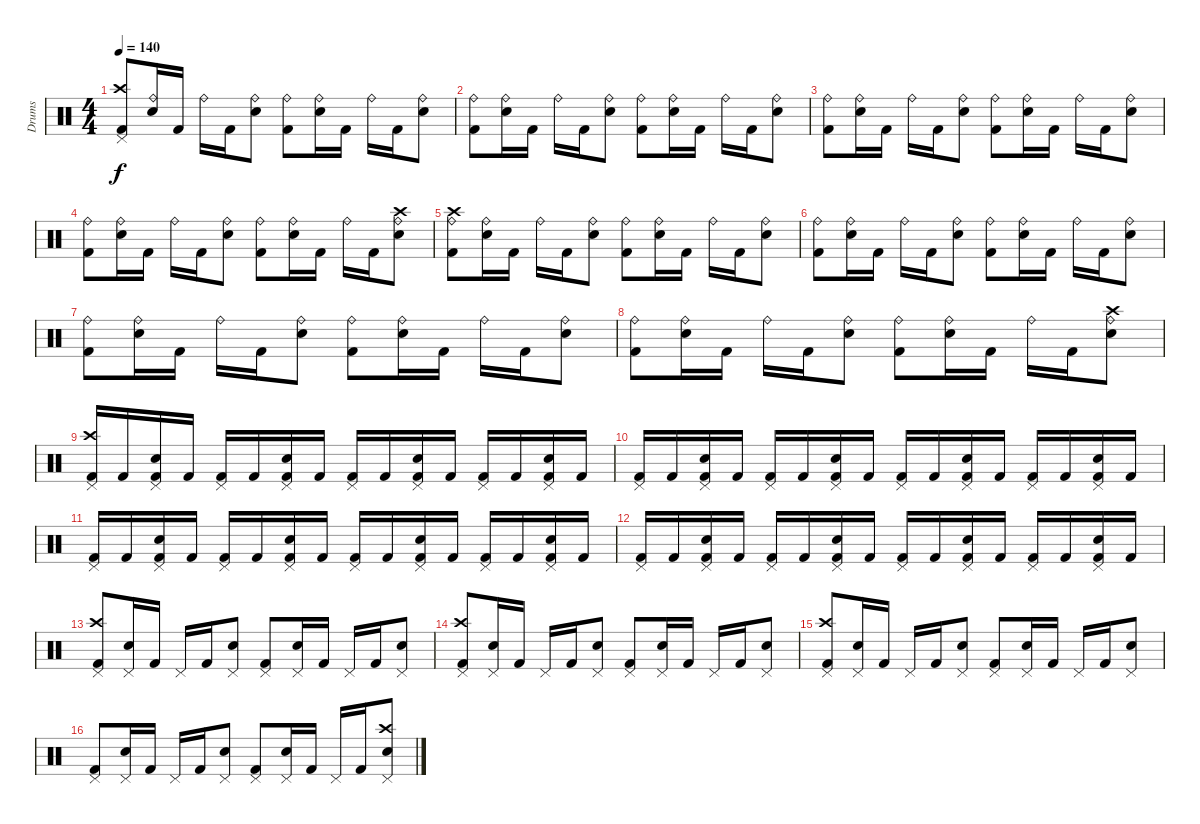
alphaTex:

\track ("Drums" "Drums") {instrument percussion}
\staff {score}
\articulation defaults
\ts (4 4)
\tempo 140
\clef neutral
\ks c
("Pedal Hi-Hat (hit)" "Crash high (hit)" "Kick (hit) 2").8{dy f} ("Ride (bell)" "Electric Snare (hit)").16 "Kick (hit) 2".16 "Ride (bell)".16 "Kick (hit) 2".16 ("Ride (bell)" "Electric Snare (hit)").8 ("Ride (bell)" "Kick (hit) 2").8 ("Ride (bell)" "Electric Snare (hit)").16 "Kick (hit) 2".16 "Ride (bell)".16 "Kick (hit) 2".16 ("Ride (bell)" "Electric Snare (hit)").8 |
("Ride (bell)" "Kick (hit) 2").8 ("Ride (bell)" "Electric Snare (hit)").16 "Kick (hit) 2".16 "Ride (bell)".16 "Kick (hit) 2".16 ("Ride (bell)" "Electric Snare (hit)").8 ("Ride (bell)" "Kick (hit) 2").8 ("Ride (bell)" "Electric Snare (hit)").16 "Kick (hit) 2".16 "Ride (bell)".16 "Kick (hit) 2".16 ("Ride (bell)" "Electric Snare (hit)").8 |
("Ride (bell)" "Kick (hit) 2").8 ("Ride (bell)" "Electric Snare (hit)").16 "Kick (hit) 2".16 "Ride (bell)".16 "Kick (hit) 2".16 ("Ride (bell)" "Electric Snare (hit)").8 ("Ride (bell)" "Kick (hit) 2").8 ("Ride (bell)" "Electric Snare (hit)").16 "Kick (hit) 2".16 "Ride (bell)".16 "Kick (hit) 2".16 ("Ride (bell)" "Electric Snare (hit)").8 |
("Ride (bell)" "Kick (hit) 2").8 ("Ride (bell)" "Electric Snare (hit)").16 "Kick (hit) 2".16 "Ride (bell)".16 "Kick (hit) 2".16 ("Ride (bell)" "Electric Snare (hit)").8 ("Ride (bell)" "Kick (hit) 2").8 ("Ride (bell)" "Electric Snare (hit)").16 "Kick (hit) 2".16 "Ride (bell)".16 "Kick (hit) 2".16 ("Ride (bell)" "Electric Snare (hit)" "Crash high (hit)").8 |
("Ride (bell)" "Crash high (hit)" "Kick (hit) 2").8 ("Ride (bell)" "Electric Snare (hit)").16 "Kick (hit) 2".16 "Ride (bell)".16 "Kick (hit) 2".16 ("Ride (bell)" "Electric Snare (hit)").8 ("Ride (bell)" "Kick (hit) 2").8 ("Ride (bell)" "Electric Snare (hit)").16 "Kick (hit) 2".16 "Ride (bell)".16 "Kick (hit) 2".16 ("Ride (bell)" "Electric Snare (hit)").8 |
("Ride (bell)" "Kick (hit) 2").8 ("Ride (bell)" "Electric Snare (hit)").16 "Kick (hit) 2".16 "Ride (bell)".16 "Kick (hit) 2".16 ("Ride (bell)" "Electric Snare (hit)").8 ("Ride (bell)" "Kick (hit) 2").8 ("Ride (bell)" "Electric Snare (hit)").16 "Kick (hit) 2".16 "Ride (bell)".16 "Kick (hit) 2".16 ("Ride (bell)" "Electric Snare (hit)").8 |
("Ride (bell)" "Kick (hit) 2").8 ("Ride (bell)" "Electric Snare (hit)").16 "Kick (hit) 2".16 "Ride (bell)".16 "Kick (hit) 2".16 ("Ride (bell)" "Electric Snare (hit)").8 ("Ride (bell)" "Kick (hit) 2").8 ("Ride (bell)" "Electric Snare (hit)").16 "Kick (hit) 2".16 "Ride (bell)".16 "Kick (hit) 2".16 ("Ride (bell)" "Electric Snare (hit)").8 |
("Ride (bell)" "Kick (hit) 2").8 ("Ride (bell)" "Electric Snare (hit)").16 "Kick (hit) 2".16 "Ride (bell)".16 "Kick (hit) 2".16 ("Ride (bell)" "Electric Snare (hit)").8 ("Ride (bell)" "Kick (hit) 2").8 ("Ride (bell)" "Electric Snare (hit)").16 "Kick (hit) 2".16 "Ride (bell)".16 "Kick (hit) 2".16 ("Ride (bell)" "Electric Snare (hit)" "Crash high (hit)").8 |
("Pedal Hi-Hat (hit)" "Crash high (hit)" "Kick (hit) 2").16 "Kick (hit) 2".16 ("Pedal Hi-Hat (hit)" "Electric Snare (hit)" "Kick (hit) 2").16 "Kick (hit) 2".16 ("Pedal Hi-Hat (hit)" "Kick (hit) 2").16 "Kick (hit) 2".16 ("Pedal Hi-Hat (hit)" "Electric Snare (hit)" "Kick (hit) 2").16 "Kick (hit) 2".16 ("Pedal Hi-Hat (hit)" "Kick (hit) 2").16 "Kick (hit) 2".16 ("Pedal Hi-Hat (hit)" "Electric Snare (hit)" "Kick (hit) 2").16 "Kick (hit) 2".16 ("Pedal Hi-Hat (hit)" "Kick (hit) 2").16 "Kick (hit) 2".16 ("Pedal Hi-Hat (hit)" "Electric Snare (hit)" "Kick (hit) 2").16 "Kick (hit) 2".16 |
("Pedal Hi-Hat (hit)" "Kick (hit) 2").16 "Kick (hit) 2".16 ("Pedal Hi-Hat (hit)" "Electric Snare (hit)" "Kick (hit) 2").16 "Kick (hit) 2".16 ("Pedal Hi-Hat (hit)" "Kick (hit) 2").16 "Kick (hit) 2".16 ("Pedal Hi-Hat (hit)" "Electric Snare (hit)" "Kick (hit) 2").16 "Kick (hit) 2".16 ("Pedal Hi-Hat (hit)" "Kick (hit) 2").16 "Kick (hit) 2".16 ("Pedal Hi-Hat (hit)" "Electric Snare (hit)" "Kick (hit) 2").16 "Kick (hit) 2".16 ("Pedal Hi-Hat (hit)" "Kick (hit) 2").16 "Kick (hit) 2".16 ("Pedal Hi-Hat (hit)" "Electric Snare (hit)" "Kick (hit) 2").16 "Kick (hit) 2".16 |
("Pedal Hi-Hat (hit)" "Kick (hit) 2").16 "Kick (hit) 2".16 ("Pedal Hi-Hat (hit)" "Electric Snare (hit)" "Kick (hit) 2").16 "Kick (hit) 2".16 ("Pedal Hi-Hat (hit)" "Kick (hit) 2").16 "Kick (hit) 2".16 ("Pedal Hi-Hat (hit)" "Electric Snare (hit)" "Kick (hit) 2").16 "Kick (hit) 2".16 ("Pedal Hi-Hat (hit)" "Kick (hit) 2").16 "Kick (hit) 2".16 ("Pedal Hi-Hat (hit)" "Electric Snare (hit)" "Kick (hit) 2").16 "Kick (hit) 2".16 ("Pedal Hi-Hat (hit)" "Kick (hit) 2").16 "Kick (hit) 2".16 ("Pedal Hi-Hat (hit)" "Electric Snare (hit)" "Kick (hit) 2").16 "Kick (hit) 2".16 |
("Pedal Hi-Hat (hit)" "Kick (hit) 2").16 "Kick (hit) 2".16 ("Pedal Hi-Hat (hit)" "Electric Snare (hit)" "Kick (hit) 2").16 "Kick (hit) 2".16 ("Pedal Hi-Hat (hit)" "Kick (hit) 2").16 "Kick (hit) 2".16 ("Pedal Hi-Hat (hit)" "Electric Snare (hit)" "Kick (hit) 2").16 "Kick (hit) 2".16 ("Pedal Hi-Hat (hit)" "Kick (hit) 2").16 "Kick (hit) 2".16 ("Pedal Hi-Hat (hit)" "Electric Snare (hit)" "Kick (hit) 2").16 "Kick (hit) 2".16 ("Pedal Hi-Hat (hit)" "Kick (hit) 2").16 "Kick (hit) 2".16 ("Pedal Hi-Hat (hit)" "Electric Snare (hit)" "Kick (hit) 2").16 "Kick (hit) 2".16 |
("Pedal Hi-Hat (hit)" "Crash high (hit)" "Kick (hit) 2").8 ("Pedal Hi-Hat (hit)" "Electric Snare (hit)").16 "Kick (hit) 2".16 "Pedal Hi-Hat (hit)".16 "Kick (hit) 2".16 ("Pedal Hi-Hat (hit)" "Electric Snare (hit)").8 ("Pedal Hi-Hat (hit)" "Kick (hit) 2").8 ("Pedal Hi-Hat (hit)" "Electric Snare (hit)").16 "Kick (hit) 2".16 "Pedal Hi-Hat (hit)".16 "Kick (hit) 2".16 ("Pedal Hi-Hat (hit)" "Electric Snare (hit)").8 |
("Pedal Hi-Hat (hit)" "Crash high (hit)" "Kick (hit) 2").8 ("Pedal Hi-Hat (hit)" "Electric Snare (hit)").16 "Kick (hit) 2".16 "Pedal Hi-Hat (hit)".16 "Kick (hit) 2".16 ("Pedal Hi-Hat (hit)" "Electric Snare (hit)").8 ("Pedal Hi-Hat (hit)" "Kick (hit) 2").8 ("Pedal Hi-Hat (hit)" "Electric Snare (hit)").16 "Kick (hit) 2".16 "Pedal Hi-Hat (hit)".16 "Kick (hit) 2".16 ("Pedal Hi-Hat (hit)" "Electric Snare (hit)").8 |
("Pedal Hi-Hat (hit)" "Crash high (hit)" "Kick (hit) 2").8 ("Pedal Hi-Hat (hit)" "Electric Snare (hit)").16 "Kick (hit) 2".16 "Pedal Hi-Hat (hit)".16 "Kick (hit) 2".16 ("Pedal Hi-Hat (hit)" "Electric Snare (hit)").8 ("Pedal Hi-Hat (hit)" "Kick (hit) 2").8 ("Pedal Hi-Hat (hit)" "Electric Snare (hit)").16 "Kick (hit) 2".16 "Pedal Hi-Hat (hit)".16 "Kick (hit) 2".16 ("Pedal Hi-Hat (hit)" "Electric Snare (hit)").8 |
("Pedal Hi-Hat (hit)" "Kick (hit) 2").8 ("Pedal Hi-Hat (hit)" "Electric Snare (hit)").16 "Kick (hit) 2".16 "Pedal Hi-Hat (hit)".16 "Kick (hit) 2".16 ("Pedal Hi-Hat (hit)" "Electric Snare (hit)").8 ("Pedal Hi-Hat (hit)" "Kick (hit) 2").8 ("Pedal Hi-Hat (hit)" "Electric Snare (hit)").16 "Kick (hit) 2".16 "Pedal Hi-Hat (hit)".16 "Kick (hit) 2".16 ("Pedal Hi-Hat (hit)" "Electric Snare (hit)" "Crash high (hit)").8
